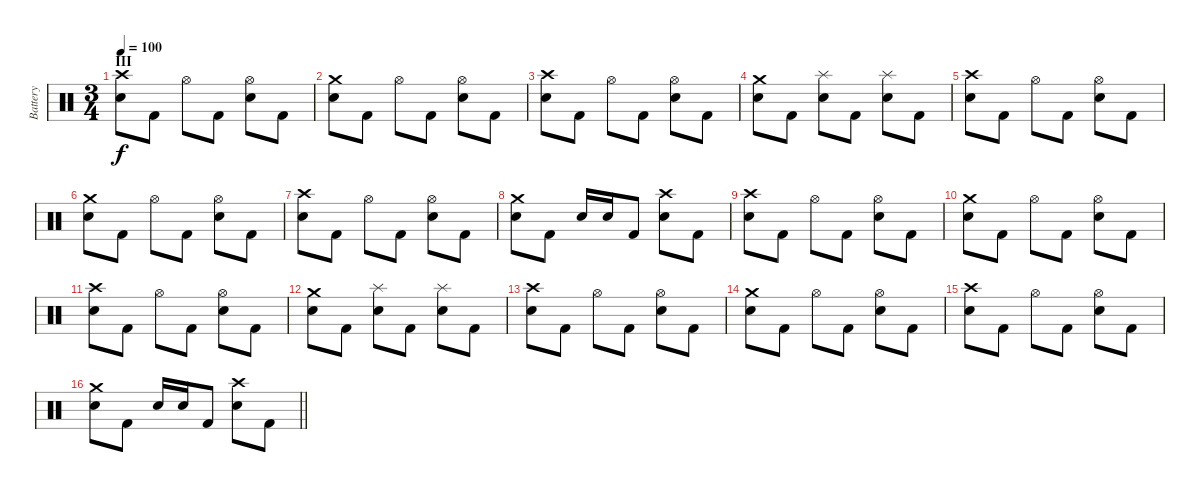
\track ("Battery" "Battery") {instrument percussion}
\staff {score}
\articulation defaults
\ts (3 4)
\section ("" "III")
\tempo 100
\clef neutral
\ks c
("Crash high (hit)" "Electric Snare (hit)").8{dy f} "Kick (hit) 2".8 "Hi-Hat (open)".8 "Kick (hit) 2".8 ("Hi-Hat (open)" "Electric Snare (hit)").8 "Kick (hit) 2".8 |
("Crash medium (hit)" "Electric Snare (hit)").8 "Kick (hit) 2".8 "Hi-Hat (open)".8 "Kick (hit) 2".8 ("Hi-Hat (open)" "Electric Snare (hit)").8 "Kick (hit) 2".8 |
("Crash high (hit)" "Electric Snare (hit)").8 "Kick (hit) 2".8 "Hi-Hat (open)".8 "Kick (hit) 2".8 ("Hi-Hat (open)" "Electric Snare (hit)").8 "Kick (hit) 2".8 |
("Crash medium (hit)" "Electric Snare (hit)").8 "Kick (hit) 2".8 ("Splash (hit)" "Electric Snare (hit)").8 "Kick (hit) 2".8 ("Splash (hit)" "Electric Snare (hit)").8 "Kick (hit) 2".8 |
("Crash high (hit)" "Electric Snare (hit)").8 "Kick (hit) 2".8 "Hi-Hat (open)".8 "Kick (hit) 2".8 ("Hi-Hat (open)" "Electric Snare (hit)").8 "Kick (hit) 2".8 |
("Crash medium (hit)" "Electric Snare (hit)").8 "Kick (hit) 2".8 "Hi-Hat (open)".8 "Kick (hit) 2".8 ("Hi-Hat (open)" "Electric Snare (hit)").8 "Kick (hit) 2".8 |
("Crash high (hit)" "Electric Snare (hit)").8 "Kick (hit) 2".8 "Hi-Hat (open)".8 "Kick (hit) 2".8 ("Hi-Hat (open)" "Electric Snare (hit)").8 "Kick (hit) 2".8 |
("Crash medium (hit)" "Electric Snare (hit)").8 "Kick (hit) 2".8 "Electric Snare (hit)".16 "Electric Snare (hit)".16 "Kick (hit) 2".8 ("Crash high (hit)" "Electric Snare (hit)").8 "Kick (hit) 2".8 |
("Crash high (hit)" "Electric Snare (hit)").8 "Kick (hit) 2".8 "Hi-Hat (open)".8 "Kick (hit) 2".8 ("Hi-Hat (open)" "Electric Snare (hit)").8 "Kick (hit) 2".8 |
("Crash medium (hit)" "Electric Snare (hit)").8 "Kick (hit) 2".8 "Hi-Hat (open)".8 "Kick (hit) 2".8 ("Hi-Hat (open)" "Electric Snare (hit)").8 "Kick (hit) 2".8 |
("Crash high (hit)" "Electric Snare (hit)").8 "Kick (hit) 2".8 "Hi-Hat (open)".8 "Kick (hit) 2".8 ("Hi-Hat (open)" "Electric Snare (hit)").8 "Kick (hit) 2".8 |
("Crash medium (hit)" "Electric Snare (hit)").8 "Kick (hit) 2".8 ("Splash (hit)" "Electric Snare (hit)").8 "Kick (hit) 2".8 ("Splash (hit)" "Electric Snare (hit)").8 "Kick (hit) 2".8 |
("Crash high (hit)" "Electric Snare (hit)").8 "Kick (hit) 2".8 "Hi-Hat (open)".8 "Kick (hit) 2".8 ("Hi-Hat (open)" "Electric Snare (hit)").8 "Kick (hit) 2".8 |
("Crash medium (hit)" "Electric Snare (hit)").8 "Kick (hit) 2".8 "Hi-Hat (open)".8 "Kick (hit) 2".8 ("Hi-Hat (open)" "Electric Snare (hit)").8 "Kick (hit) 2".8 |
("Crash high (hit)" "Electric Snare (hit)").8 "Kick (hit) 2".8 "Hi-Hat (open)".8 "Kick (hit) 2".8 ("Hi-Hat (open)" "Electric Snare (hit)").8 "Kick (hit) 2".8 |
\barLineRight lightlight
("Crash medium (hit)" "Electric Snare (hit)").8 "Kick (hit) 2".8 "Electric Snare (hit)".16 "Electric Snare (hit)".16 "Kick (hit) 2".8 ("Crash high (hit)" "Electric Snare (hit)").8 "Kick (hit) 2".8
